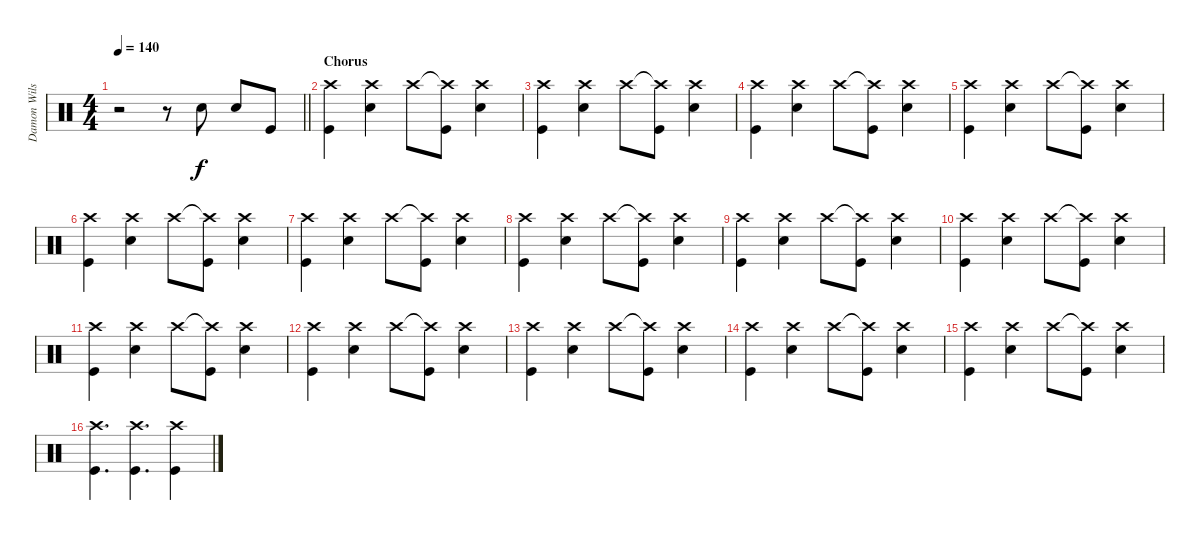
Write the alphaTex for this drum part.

\track ("Damon Wilson" "Damon Wils") {instrument percussion}
\staff {score}
\articulation defaults
\ts (4 4)
\tempo 140
\clef neutral
\barLineRight lightlight
\ks c
r.2{dy f} r.8 "Snare (hit) 2".8{volume 16} "Snare (hit) 2".8 "Kick (hit)".8 |
\section ("" "Chorus")
("Crash high (hit)" "Kick (hit)").4 ("Crash high (hit)" "Snare (hit) 2").4 "Crash high (hit)".8 ("Crash high (hit)"{t} "Kick (hit)").8 ("Crash high (hit)" "Snare (hit) 2").4 |
("Crash high (hit)" "Kick (hit)").4 ("Crash high (hit)" "Snare (hit) 2").4 "Crash high (hit)".8 ("Crash high (hit)"{t} "Kick (hit)").8 ("Crash high (hit)" "Snare (hit) 2").4 |
("Crash high (hit)" "Kick (hit)").4 ("Crash high (hit)" "Snare (hit) 2").4 "Crash high (hit)".8 ("Crash high (hit)"{t} "Kick (hit)").8 ("Crash high (hit)" "Snare (hit) 2").4 |
("Crash high (hit)" "Kick (hit)").4 ("Crash high (hit)" "Snare (hit) 2").4 "Crash high (hit)".8 ("Crash high (hit)"{t} "Kick (hit)").8 ("Crash high (hit)" "Snare (hit) 2").4 |
("Crash high (hit)" "Kick (hit)").4 ("Crash high (hit)" "Snare (hit) 2").4 "Crash high (hit)".8 ("Crash high (hit)"{t} "Kick (hit)").8 ("Crash high (hit)" "Snare (hit) 2").4 |
("Crash high (hit)" "Kick (hit)").4 ("Crash high (hit)" "Snare (hit) 2").4 "Crash high (hit)".8 ("Crash high (hit)"{t} "Kick (hit)").8 ("Crash high (hit)" "Snare (hit) 2").4 |
("Crash high (hit)" "Kick (hit)").4 ("Crash high (hit)" "Snare (hit) 2").4 "Crash high (hit)".8 ("Crash high (hit)"{t} "Kick (hit)").8 ("Crash high (hit)" "Snare (hit) 2").4 |
("Crash high (hit)" "Kick (hit)").4 ("Crash high (hit)" "Snare (hit) 2").4 "Crash high (hit)".8 ("Crash high (hit)"{t} "Kick (hit)").8 ("Crash high (hit)" "Snare (hit) 2").4 |
("Crash high (hit)" "Kick (hit)").4{volume 14} ("Crash high (hit)" "Snare (hit) 2").4 "Crash high (hit)".8 ("Crash high (hit)"{t} "Kick (hit)").8 ("Crash high (hit)" "Snare (hit) 2").4 |
("Crash high (hit)" "Kick (hit)").4 ("Crash high (hit)" "Snare (hit) 2").4 "Crash high (hit)".8 ("Crash high (hit)"{t} "Kick (hit)").8 ("Crash high (hit)" "Snare (hit) 2").4 |
("Crash high (hit)" "Kick (hit)").4 ("Crash high (hit)" "Snare (hit) 2").4 "Crash high (hit)".8 ("Crash high (hit)"{t} "Kick (hit)").8 ("Crash high (hit)" "Snare (hit) 2").4 |
("Crash high (hit)" "Kick (hit)").4 ("Crash high (hit)" "Snare (hit) 2").4 "Crash high (hit)".8 ("Crash high (hit)"{t} "Kick (hit)").8 ("Crash high (hit)" "Snare (hit) 2").4 |
("Crash high (hit)" "Kick (hit)").4 ("Crash high (hit)" "Snare (hit) 2").4 "Crash high (hit)".8 ("Crash high (hit)"{t} "Kick (hit)").8 ("Crash high (hit)" "Snare (hit) 2").4 |
("Crash high (hit)" "Kick (hit)").4 ("Crash high (hit)" "Snare (hit) 2").4 "Crash high (hit)".8 ("Crash high (hit)"{t} "Kick (hit)").8 ("Crash high (hit)" "Snare (hit) 2").4 |
("Crash high (hit)" "Kick (hit)").4{d} ("Crash high (hit)" "Kick (hit)").4{d} ("Crash high (hit)" "Kick (hit)").4
